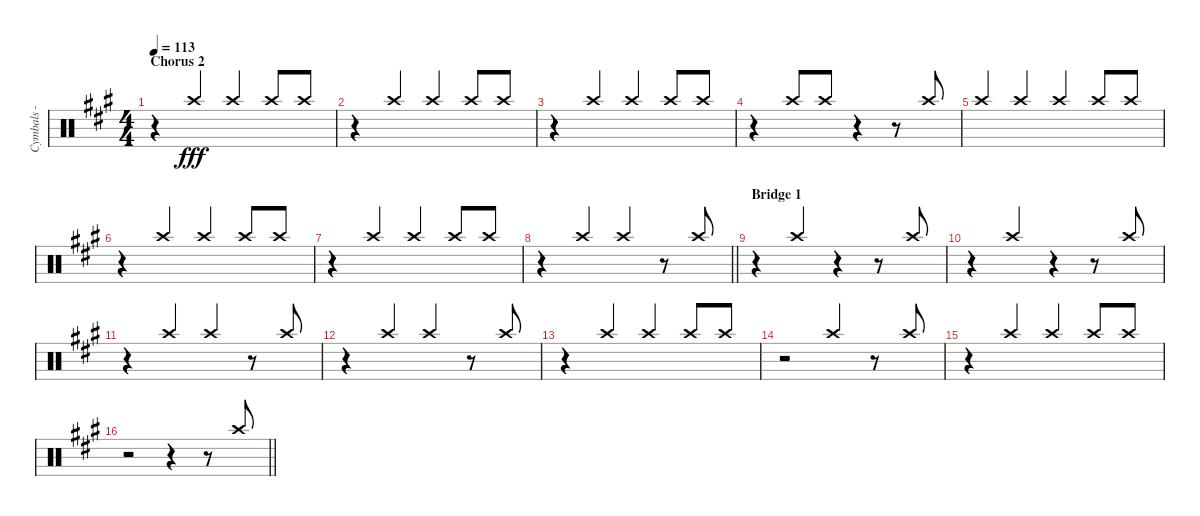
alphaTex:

\track ("Cymbals - crash" "Cymbals - ") {instrument percussion}
\staff {score}
\articulation defaults
\ts (4 4)
\section ("" "Chorus 2")
\tempo 113
\clef neutral
\ks f#minor
r.4{dy fff} "Crash high (hit)".4{beam Up} "Crash high (hit)".4{beam Up} "Crash high (hit)".8{beam Up} "Crash high (hit)".8{beam Up} |
r.4 "Crash high (hit)".4{beam Up} "Crash high (hit)".4{beam Up} "Crash high (hit)".8{beam Up} "Crash high (hit)".8{beam Up} |
r.4 "Crash high (hit)".4{beam Up} "Crash high (hit)".4{beam Up} "Crash high (hit)".8{beam Up} "Crash high (hit)".8{beam Up} |
r.4 "Crash high (hit)".8{beam Up} "Crash high (hit)".8{beam Up} r.4 r.8 "Crash high (hit)".8{beam Up} |
"Crash high (hit)".4{beam Up} "Crash high (hit)".4{beam Up} "Crash high (hit)".4{beam Up} "Crash high (hit)".8{beam Up} "Crash high (hit)".8{beam Up} |
r.4 "Crash high (hit)".4{beam Up} "Crash high (hit)".4{beam Up} "Crash high (hit)".8{beam Up} "Crash high (hit)".8{beam Up} |
r.4 "Crash high (hit)".4{beam Up} "Crash high (hit)".4{beam Up} "Crash high (hit)".8{beam Up} "Crash high (hit)".8{beam Up} |
\barLineRight lightlight
r.4 "Crash high (hit)".4{beam Up} "Crash high (hit)".4{beam Up} r.8 "Crash high (hit)".8{beam Up} |
\section ("" "Bridge 1")
r.4 "Crash high (hit)".4{beam Up} r.4 r.8 "Crash high (hit)".8{beam Up} |
r.4 "Crash high (hit)".4{beam Up} r.4 r.8 "Crash high (hit)".8{beam Up} |
r.4 "Crash high (hit)".4{beam Up} "Crash high (hit)".4{beam Up} r.8 "Crash high (hit)".8{beam Up} |
r.4 "Crash high (hit)".4{beam Up} "Crash high (hit)".4{beam Up} r.8 "Crash high (hit)".8{beam Up} |
r.4 "Crash high (hit)".4{beam Up} "Crash high (hit)".4{beam Up} "Crash high (hit)".8{beam Up} "Crash high (hit)".8{beam Up} |
r.2 "Crash high (hit)".4{beam Up} r.8 "Crash high (hit)".8{beam Up} |
r.4 "Crash high (hit)".4{beam Up} "Crash high (hit)".4{beam Up} "Crash high (hit)".8{beam Up} "Crash high (hit)".8{beam Up} |
\barLineRight lightlight
r.2 r.4 r.8 "Crash high (hit)".8{beam Up}
